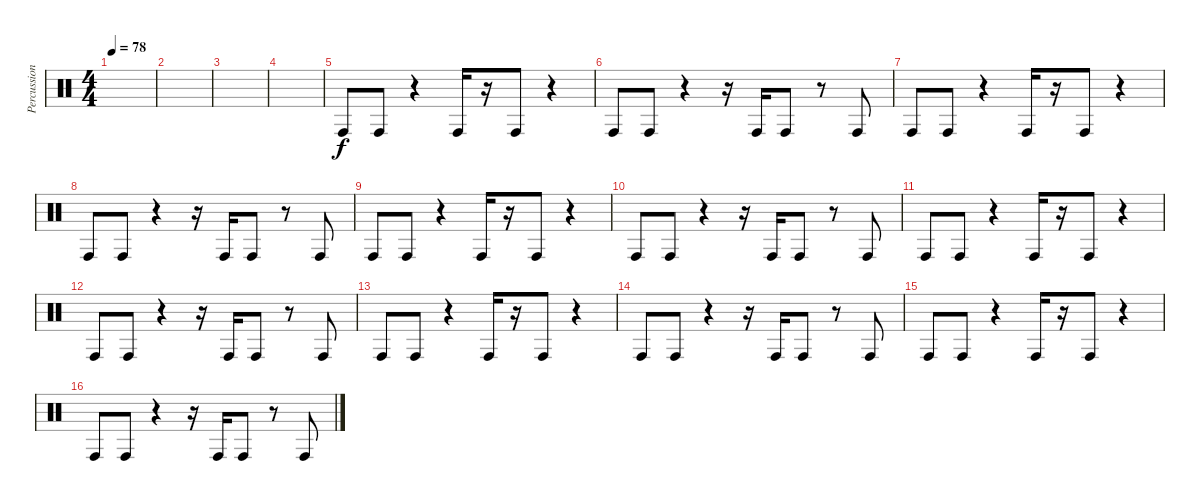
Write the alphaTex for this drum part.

\track ("Percussion" "Percussion") {instrument percussion}
\staff {score}
\articulation defaults
\ts (4 4)
\tempo 78
\clef neutral
\ks c
|
|
|
|
"Conga high (hit)".8 "Conga high (hit)".8 r.4 "Conga high (hit)".16 r.16 "Conga high (hit)".8 r.4 |
"Conga high (hit)".8 "Conga high (hit)".8 r.4 r.16 "Conga high (hit)".16 "Conga high (hit)".8 r.8 "Conga high (hit)".8 |
"Conga high (hit)".8 "Conga high (hit)".8 r.4 "Conga high (hit)".16 r.16 "Conga high (hit)".8 r.4 |
"Conga high (hit)".8 "Conga high (hit)".8 r.4 r.16 "Conga high (hit)".16 "Conga high (hit)".8 r.8 "Conga high (hit)".8 |
"Conga high (hit)".8 "Conga high (hit)".8 r.4 "Conga high (hit)".16 r.16 "Conga high (hit)".8 r.4 |
"Conga high (hit)".8 "Conga high (hit)".8 r.4 r.16 "Conga high (hit)".16 "Conga high (hit)".8 r.8 "Conga high (hit)".8 |
"Conga high (hit)".8 "Conga high (hit)".8 r.4 "Conga high (hit)".16 r.16 "Conga high (hit)".8 r.4 |
"Conga high (hit)".8 "Conga high (hit)".8 r.4 r.16 "Conga high (hit)".16 "Conga high (hit)".8 r.8 "Conga high (hit)".8 |
"Conga high (hit)".8 "Conga high (hit)".8 r.4 "Conga high (hit)".16 r.16 "Conga high (hit)".8 r.4 |
"Conga high (hit)".8 "Conga high (hit)".8 r.4 r.16 "Conga high (hit)".16 "Conga high (hit)".8 r.8 "Conga high (hit)".8 |
"Conga high (hit)".8 "Conga high (hit)".8 r.4 "Conga high (hit)".16 r.16 "Conga high (hit)".8 r.4 |
"Conga high (hit)".8 "Conga high (hit)".8 r.4 r.16 "Conga high (hit)".16 "Conga high (hit)".8 r.8 "Conga high (hit)".8
